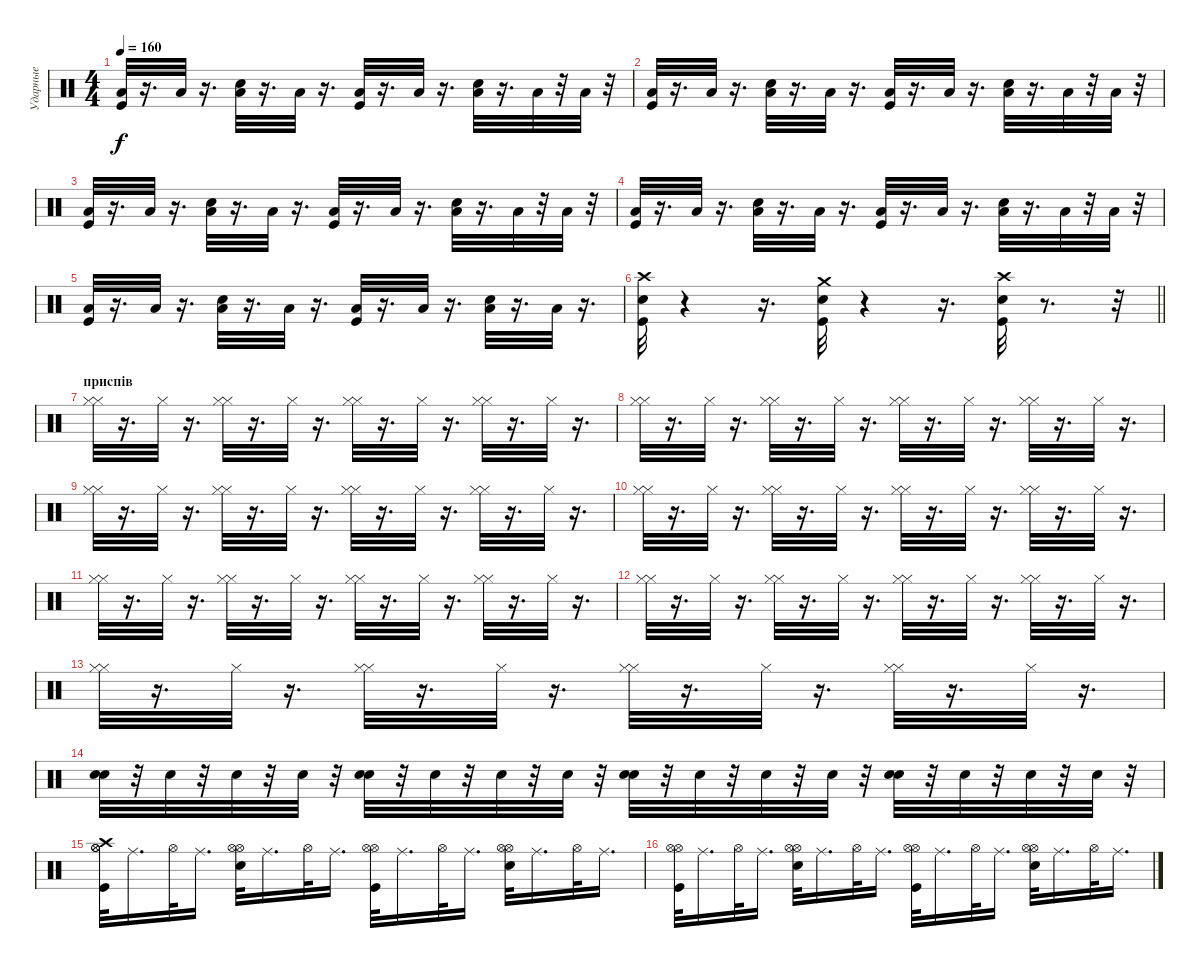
\track ("Ударные" "Ударные") {instrument percussion}
\staff {score}
\articulation defaults
\ts (4 4)
\tempo 160
\clef neutral
\ks c
("Kick (hit)" "Low Floor Tom (hit)").32{dy f} r.16{d} "Low Floor Tom (hit)".32 r.16{d} ("Low Floor Tom (hit)" "Snare (hit) 2").32 r.16{d} "Low Floor Tom (hit)".32 r.16{d} ("Low Floor Tom (hit)" "Kick (hit)").32 r.16{d} "Low Floor Tom (hit)".32 r.16{d} ("Snare (hit) 2" "Low Floor Tom (hit)").32 r.16{d} "Low Floor Tom (hit)".32 r.32 "Low Floor Tom (hit)".32 r.32 |
("Kick (hit)" "Low Floor Tom (hit)").32 r.16{d} "Low Floor Tom (hit)".32 r.16{d} ("Low Floor Tom (hit)" "Snare (hit) 2").32 r.16{d} "Low Floor Tom (hit)".32 r.16{d} ("Kick (hit)" "Low Floor Tom (hit)").32 r.16{d} "Low Floor Tom (hit)".32 r.16{d} ("Low Floor Tom (hit)" "Snare (hit) 2").32 r.16{d} "Low Floor Tom (hit)".32 r.32 "Low Floor Tom (hit)".32 r.32 |
("Kick (hit)" "Low Floor Tom (hit)").32 r.16{d} "Low Floor Tom (hit)".32 r.16{d} ("Low Floor Tom (hit)" "Snare (hit) 2").32 r.16{d} "Low Floor Tom (hit)".32 r.16{d} ("Low Floor Tom (hit)" "Kick (hit)").32 r.16{d} "Low Floor Tom (hit)".32 r.16{d} ("Snare (hit) 2" "Low Floor Tom (hit)").32 r.16{d} "Low Floor Tom (hit)".32 r.32 "Low Floor Tom (hit)".32 r.32 |
("Kick (hit)" "Low Floor Tom (hit)").32 r.16{d} "Low Floor Tom (hit)".32 r.16{d} ("Low Floor Tom (hit)" "Snare (hit) 2").32 r.16{d} "Low Floor Tom (hit)".32 r.16{d} ("Kick (hit)" "Low Floor Tom (hit)").32 r.16{d} "Low Floor Tom (hit)".32 r.16{d} ("Low Floor Tom (hit)" "Snare (hit) 2").32 r.16{d} "Low Floor Tom (hit)".32 r.32 "Low Floor Tom (hit)".32 r.32 |
("Kick (hit)" "Low Floor Tom (hit)").32 r.16{d} "Low Floor Tom (hit)".32 r.16{d} ("Low Floor Tom (hit)" "Snare (hit) 2").32 r.16{d} "Low Floor Tom (hit)".32 r.16{d} ("Low Floor Tom (hit)" "Kick (hit)").32 r.16{d} "Low Floor Tom (hit)".32 r.16{d} ("Snare (hit) 2" "Low Floor Tom (hit)").32 r.16{d} "Low Floor Tom (hit)".32 r.16{d} |
\barLineRight lightlight
("Crash high (hit)" "Kick (hit)" "Snare (hit) 2").32 r.4 r.16{d} ("Kick (hit)" "Crash medium (hit)" "Snare (hit) 2").32 r.4 r.16{d} ("Crash high (hit)" "Kick (hit)" "Snare (hit) 2").32 r.8{d} r.32 |
\section ("" "приспів")
("Hi-Hat (closed)" "Hi-Hat (closed)").32 r.16{d} "Hi-Hat (closed)".32 r.16{d} ("Hi-Hat (closed)" "Hi-Hat (closed)").32 r.16{d} "Hi-Hat (closed)".32 r.16{d} ("Hi-Hat (closed)" "Hi-Hat (closed)").32 r.16{d} "Hi-Hat (closed)".32 r.16{d} ("Hi-Hat (closed)" "Hi-Hat (closed)").32 r.16{d} "Hi-Hat (closed)".32 r.16{d} |
("Hi-Hat (closed)" "Hi-Hat (closed)").32 r.16{d} "Hi-Hat (closed)".32 r.16{d} ("Hi-Hat (closed)" "Hi-Hat (closed)").32 r.16{d} "Hi-Hat (closed)".32 r.16{d} ("Hi-Hat (closed)" "Hi-Hat (closed)").32 r.16{d} "Hi-Hat (closed)".32 r.16{d} ("Hi-Hat (closed)" "Hi-Hat (closed)").32 r.16{d} "Hi-Hat (closed)".32 r.16{d} |
("Hi-Hat (closed)" "Hi-Hat (closed)").32 r.16{d} "Hi-Hat (closed)".32 r.16{d} ("Hi-Hat (closed)" "Hi-Hat (closed)").32 r.16{d} "Hi-Hat (closed)".32 r.16{d} ("Hi-Hat (closed)" "Hi-Hat (closed)").32 r.16{d} "Hi-Hat (closed)".32 r.16{d} ("Hi-Hat (closed)" "Hi-Hat (closed)").32 r.16{d} "Hi-Hat (closed)".32 r.16{d} |
("Hi-Hat (closed)" "Hi-Hat (closed)").32 r.16{d} "Hi-Hat (closed)".32 r.16{d} ("Hi-Hat (closed)" "Hi-Hat (closed)").32 r.16{d} "Hi-Hat (closed)".32 r.16{d} ("Hi-Hat (closed)" "Hi-Hat (closed)").32 r.16{d} "Hi-Hat (closed)".32 r.16{d} ("Hi-Hat (closed)" "Hi-Hat (closed)").32 r.16{d} "Hi-Hat (closed)".32 r.16{d} |
("Hi-Hat (closed)" "Hi-Hat (closed)").32 r.16{d} "Hi-Hat (closed)".32 r.16{d} ("Hi-Hat (closed)" "Hi-Hat (closed)").32 r.16{d} "Hi-Hat (closed)".32 r.16{d} ("Hi-Hat (closed)" "Hi-Hat (closed)").32 r.16{d} "Hi-Hat (closed)".32 r.16{d} ("Hi-Hat (closed)" "Hi-Hat (closed)").32 r.16{d} "Hi-Hat (closed)".32 r.16{d} |
("Hi-Hat (closed)" "Hi-Hat (closed)").32 r.16{d} "Hi-Hat (closed)".32 r.16{d} ("Hi-Hat (closed)" "Hi-Hat (closed)").32 r.16{d} "Hi-Hat (closed)".32 r.16{d} ("Hi-Hat (closed)" "Hi-Hat (closed)").32 r.16{d} "Hi-Hat (closed)".32 r.16{d} ("Hi-Hat (closed)" "Hi-Hat (closed)").32 r.16{d} "Hi-Hat (closed)".32 r.16{d} |
("Hi-Hat (closed)" "Hi-Hat (closed)").32 r.16{d} "Hi-Hat (closed)".32 r.16{d} ("Hi-Hat (closed)" "Hi-Hat (closed)").32 r.16{d} "Hi-Hat (closed)".32 r.16{d} ("Hi-Hat (closed)" "Hi-Hat (closed)").32 r.16{d} "Hi-Hat (closed)".32 r.16{d} ("Hi-Hat (closed)" "Hi-Hat (closed)").32 r.16{d} "Hi-Hat (closed)".32 r.16{d} |
("Snare (hit) 2" "Snare (hit) 2").32 r.32 "Snare (hit) 2".32 r.32 "Snare (hit) 2".32 r.32 "Snare (hit) 2".32 r.32 ("Snare (hit) 2" "Snare (hit) 2").32 r.32 "Snare (hit) 2".32 r.32 "Snare (hit) 2".32 r.32 "Snare (hit) 2".32 r.32 ("Snare (hit) 2" "Snare (hit) 2").32 r.32 "Snare (hit) 2".32 r.32 "Snare (hit) 2".32 r.32 "Snare (hit) 2".32 r.32 ("Snare (hit) 2" "Snare (hit) 2").32 r.32 "Snare (hit) 2".32 r.32 "Snare (hit) 2".32 r.32 "Snare (hit) 2".32 r.32 |
("Crash high (hit)" "Kick (hit)" "Hi-Hat (open)" "Hi-Hat (open)").32 "Ride (middle)".16{d} "Hi-Hat (open)".32 "Ride (middle)".16{d} ("Hi-Hat (open)" "Snare (hit) 2" "Hi-Hat (open)").32 "Ride (middle)".16{d} "Hi-Hat (open)".32 "Ride (middle)".16{d} ("Hi-Hat (open)" "Kick (hit)" "Hi-Hat (open)").32 "Ride (middle)".16{d} "Hi-Hat (open)".32 "Ride (middle)".16{d} ("Hi-Hat (open)" "Hi-Hat (open)" "Snare (hit) 2").32 "Ride (middle)".16{d} "Hi-Hat (open)".32 "Ride (middle)".16{d} |
("Hi-Hat (open)" "Hi-Hat (open)" "Kick (hit)").32 "Ride (middle)".16{d} "Hi-Hat (open)".32 "Ride (middle)".16{d} ("Snare (hit) 2" "Hi-Hat (open)" "Hi-Hat (open)").32 "Ride (middle)".16{d} "Hi-Hat (open)".32 "Ride (middle)".16{d} ("Kick (hit)" "Hi-Hat (open)" "Hi-Hat (open)").32 "Ride (middle)".16{d} "Hi-Hat (open)".32 "Ride (middle)".16{d} ("Hi-Hat (open)" "Hi-Hat (open)" "Snare (hit) 2").32 "Ride (middle)".16{d} "Hi-Hat (open)".32 "Ride (middle)".16{d}
